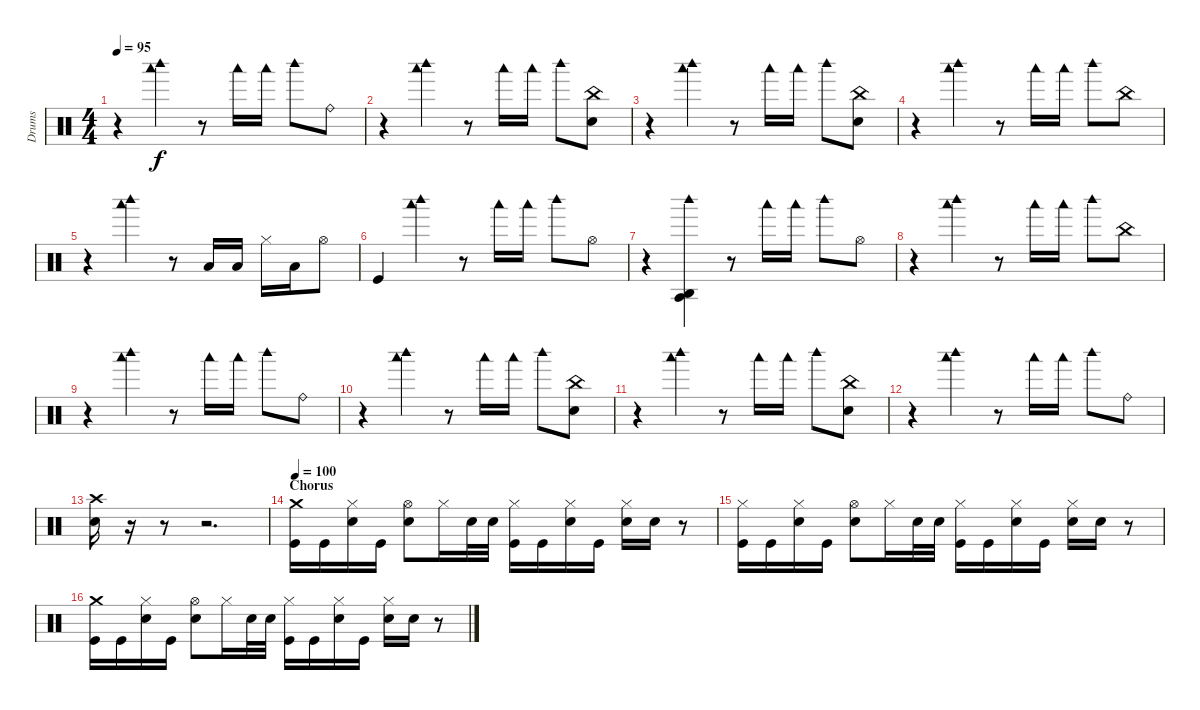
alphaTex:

\track ("Drums" "Drums") {instrument percussion}
\staff {score}
\articulation defaults
\ts (4 4)
\tempo 95
\clef neutral
\ks c
r.4{dy f} ("Woodblock high (hit)" "Woodblock low (hit)").4 r.8 "Woodblock low (hit)".16 "Woodblock low (hit)".16 "Woodblock high (hit)".8 "Ride (bell)".8 |
r.4 ("Woodblock high (hit)" "Woodblock low (hit)").4 r.8 "Woodblock low (hit)".16 "Woodblock low (hit)".16 "Woodblock high (hit)".8 ("China (hit)" "Electric Snare (hit)").8 |
r.4 ("Woodblock high (hit)" "Woodblock low (hit)").4 r.8 "Woodblock low (hit)".16 "Woodblock low (hit)".16 "Woodblock high (hit)".8 ("China (hit)" "Electric Snare (hit)").8 |
r.4 ("Woodblock high (hit)" "Woodblock low (hit)").4 r.8 "Woodblock low (hit)".16 "Woodblock low (hit)".16 "Woodblock high (hit)".8 "China (hit)".8 |
r.4 ("Woodblock high (hit)" "Woodblock low (hit)").4 r.8 "Low Tom (hit)".16 "Low Tom (hit)".16 "Hi-Hat (closed)".16 "Low Tom (hit)".16 "Hi-Hat (open)".8 |
"Kick (hit)".4 ("Woodblock high (hit)" "Woodblock low (hit)").4 r.8 "Woodblock low (hit)".16 "Woodblock low (hit)".16 "Woodblock high (hit)".8 "Hi-Hat (open)".8 |
r.4 ("Agogo high (hit)" "Agogo tow (hit)" "Woodblock high (hit)").4 r.8 "Woodblock low (hit)".16 "Woodblock low (hit)".16 "Woodblock high (hit)".8 "Hi-Hat (open)".8 |
r.4 ("Woodblock high (hit)" "Woodblock low (hit)").4 r.8 "Woodblock low (hit)".16 "Woodblock low (hit)".16 "Woodblock high (hit)".8 "China (hit)".8 |
r.4 ("Woodblock high (hit)" "Woodblock low (hit)").4 r.8 "Woodblock low (hit)".16 "Woodblock low (hit)".16 "Woodblock high (hit)".8 "Ride (bell)".8 |
r.4 ("Woodblock high (hit)" "Woodblock low (hit)").4 r.8 "Woodblock low (hit)".16 "Woodblock low (hit)".16 "Woodblock high (hit)".8 ("China (hit)" "Electric Snare (hit)").8 |
r.4 ("Woodblock high (hit)" "Woodblock low (hit)").4 r.8 "Woodblock low (hit)".16 "Woodblock low (hit)".16 "Woodblock high (hit)".8 ("China (hit)" "Electric Snare (hit)").8 |
r.4 ("Woodblock high (hit)" "Woodblock low (hit)").4 r.8 "Woodblock low (hit)".16 "Woodblock low (hit)".16 "Woodblock high (hit)".8 "Ride (bell)".8 |
("Crash high (hit)" "Electric Snare (hit)").16 r.16 r.8 r.2{d} |
\section ("" "Chorus")
\tempo 100
("Crash medium (hit)" "Kick (hit)").16 "Kick (hit)".16 ("Hi-Hat (closed)" "Electric Snare (hit)").16 "Kick (hit)".16 ("Hi-Hat (open)" "Electric Snare (hit)").8 "Hi-Hat (closed)".16 "Electric Snare (hit)".32 "Electric Snare (hit)".32 ("Hi-Hat (closed)" "Kick (hit)").16 "Kick (hit)".16 ("Hi-Hat (closed)" "Electric Snare (hit)").16 "Kick (hit)".16 ("Hi-Hat (closed)" "Electric Snare (hit)").16 "Electric Snare (hit)".16 r.8 |
("Hi-Hat (closed)" "Kick (hit)").16 "Kick (hit)".16 ("Hi-Hat (closed)" "Electric Snare (hit)").16 "Kick (hit)".16 ("Hi-Hat (open)" "Electric Snare (hit)").8 "Hi-Hat (closed)".16 "Electric Snare (hit)".32 "Electric Snare (hit)".32 ("Hi-Hat (closed)" "Kick (hit)").16 "Kick (hit)".16 ("Hi-Hat (closed)" "Electric Snare (hit)").16 "Kick (hit)".16 ("Hi-Hat (closed)" "Electric Snare (hit)").16 "Electric Snare (hit)".16 r.8 |
("Crash medium (hit)" "Kick (hit)").16 "Kick (hit)".16 ("Hi-Hat (closed)" "Electric Snare (hit)").16 "Kick (hit)".16 ("Hi-Hat (open)" "Electric Snare (hit)").8 "Hi-Hat (closed)".16 "Electric Snare (hit)".32 "Electric Snare (hit)".32 ("Hi-Hat (closed)" "Kick (hit)").16 "Kick (hit)".16 ("Hi-Hat (closed)" "Electric Snare (hit)").16 "Kick (hit)".16 ("Hi-Hat (closed)" "Electric Snare (hit)").16 "Electric Snare (hit)".16 r.8
